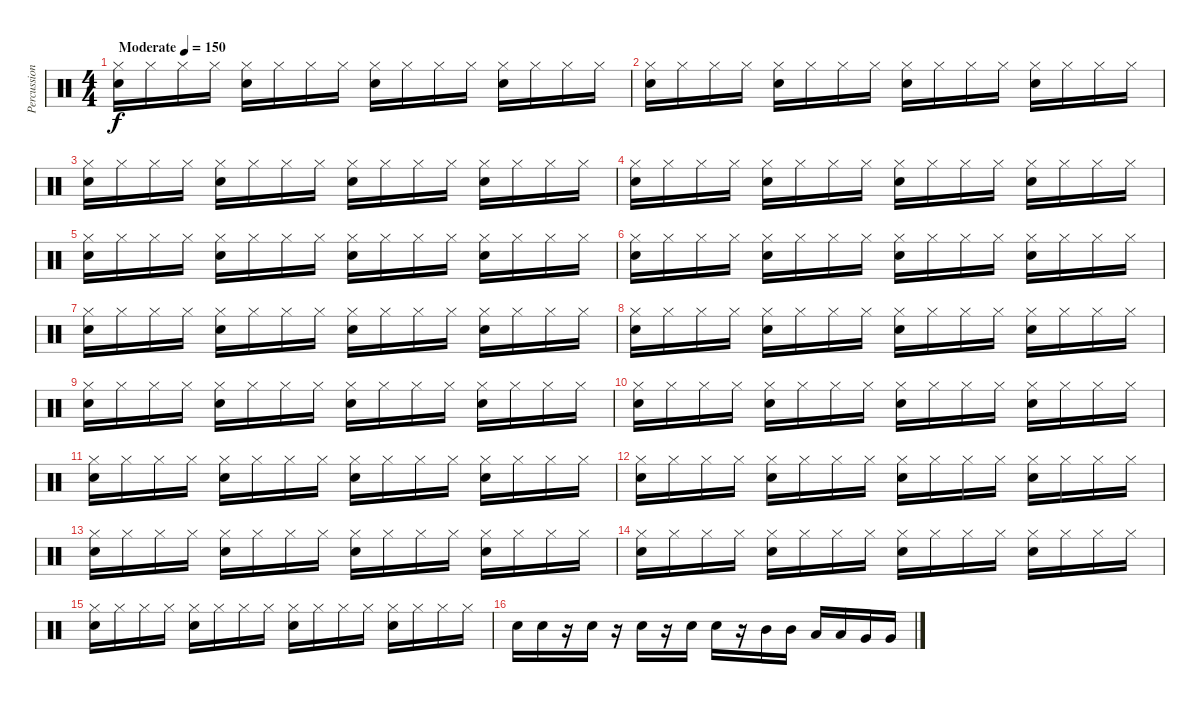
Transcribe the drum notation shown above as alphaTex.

\track ("Percussion" "Percussion") {instrument percussion}
\staff {score}
\articulation defaults
\ts (4 4)
\tempo (150 "Moderate")
\clef neutral
\ks c
("Hi-Hat (closed)" "Snare (hit) 2").16{dy f} "Hi-Hat (closed)".16 "Hi-Hat (closed)".16 "Hi-Hat (closed)".16 ("Hi-Hat (closed)" "Snare (hit) 2").16 "Hi-Hat (closed)".16 "Hi-Hat (closed)".16 "Hi-Hat (closed)".16 ("Hi-Hat (closed)" "Snare (hit) 2").16 "Hi-Hat (closed)".16 "Hi-Hat (closed)".16 "Hi-Hat (closed)".16 ("Hi-Hat (closed)" "Snare (hit) 2").16 "Hi-Hat (closed)".16 "Hi-Hat (closed)".16 "Hi-Hat (closed)".16 |
("Hi-Hat (closed)" "Snare (hit) 2").16 "Hi-Hat (closed)".16 "Hi-Hat (closed)".16 "Hi-Hat (closed)".16 ("Hi-Hat (closed)" "Snare (hit) 2").16 "Hi-Hat (closed)".16 "Hi-Hat (closed)".16 "Hi-Hat (closed)".16 ("Hi-Hat (closed)" "Snare (hit) 2").16 "Hi-Hat (closed)".16 "Hi-Hat (closed)".16 "Hi-Hat (closed)".16 ("Hi-Hat (closed)" "Snare (hit) 2").16 "Hi-Hat (closed)".16 "Hi-Hat (closed)".16 "Hi-Hat (closed)".16 |
("Hi-Hat (closed)" "Snare (hit) 2").16 "Hi-Hat (closed)".16 "Hi-Hat (closed)".16 "Hi-Hat (closed)".16 ("Hi-Hat (closed)" "Snare (hit) 2").16 "Hi-Hat (closed)".16 "Hi-Hat (closed)".16 "Hi-Hat (closed)".16 ("Hi-Hat (closed)" "Snare (hit) 2").16 "Hi-Hat (closed)".16 "Hi-Hat (closed)".16 "Hi-Hat (closed)".16 ("Hi-Hat (closed)" "Snare (hit) 2").16 "Hi-Hat (closed)".16 "Hi-Hat (closed)".16 "Hi-Hat (closed)".16 |
("Hi-Hat (closed)" "Snare (hit) 2").16 "Hi-Hat (closed)".16 "Hi-Hat (closed)".16 "Hi-Hat (closed)".16 ("Hi-Hat (closed)" "Snare (hit) 2").16 "Hi-Hat (closed)".16 "Hi-Hat (closed)".16 "Hi-Hat (closed)".16 ("Hi-Hat (closed)" "Snare (hit) 2").16 "Hi-Hat (closed)".16 "Hi-Hat (closed)".16 "Hi-Hat (closed)".16 ("Hi-Hat (closed)" "Snare (hit) 2").16 "Hi-Hat (closed)".16 "Hi-Hat (closed)".16 "Hi-Hat (closed)".16 |
("Hi-Hat (closed)" "Snare (hit) 2").16 "Hi-Hat (closed)".16 "Hi-Hat (closed)".16 "Hi-Hat (closed)".16 ("Hi-Hat (closed)" "Snare (hit) 2").16 "Hi-Hat (closed)".16 "Hi-Hat (closed)".16 "Hi-Hat (closed)".16 ("Hi-Hat (closed)" "Snare (hit) 2").16 "Hi-Hat (closed)".16 "Hi-Hat (closed)".16 "Hi-Hat (closed)".16 ("Hi-Hat (closed)" "Snare (hit) 2").16 "Hi-Hat (closed)".16 "Hi-Hat (closed)".16 "Hi-Hat (closed)".16 |
("Hi-Hat (closed)" "Snare (hit) 2").16 "Hi-Hat (closed)".16 "Hi-Hat (closed)".16 "Hi-Hat (closed)".16 ("Hi-Hat (closed)" "Snare (hit) 2").16 "Hi-Hat (closed)".16 "Hi-Hat (closed)".16 "Hi-Hat (closed)".16 ("Hi-Hat (closed)" "Snare (hit) 2").16 "Hi-Hat (closed)".16 "Hi-Hat (closed)".16 "Hi-Hat (closed)".16 ("Hi-Hat (closed)" "Snare (hit) 2").16 "Hi-Hat (closed)".16 "Hi-Hat (closed)".16 "Hi-Hat (closed)".16 |
("Hi-Hat (closed)" "Snare (hit) 2").16 "Hi-Hat (closed)".16 "Hi-Hat (closed)".16 "Hi-Hat (closed)".16 ("Hi-Hat (closed)" "Snare (hit) 2").16 "Hi-Hat (closed)".16 "Hi-Hat (closed)".16 "Hi-Hat (closed)".16 ("Hi-Hat (closed)" "Snare (hit) 2").16 "Hi-Hat (closed)".16 "Hi-Hat (closed)".16 "Hi-Hat (closed)".16 ("Hi-Hat (closed)" "Snare (hit) 2").16 "Hi-Hat (closed)".16 "Hi-Hat (closed)".16 "Hi-Hat (closed)".16 |
("Hi-Hat (closed)" "Snare (hit) 2").16 "Hi-Hat (closed)".16 "Hi-Hat (closed)".16 "Hi-Hat (closed)".16 ("Hi-Hat (closed)" "Snare (hit) 2").16 "Hi-Hat (closed)".16 "Hi-Hat (closed)".16 "Hi-Hat (closed)".16 ("Hi-Hat (closed)" "Snare (hit) 2").16 "Hi-Hat (closed)".16 "Hi-Hat (closed)".16 "Hi-Hat (closed)".16 ("Hi-Hat (closed)" "Snare (hit) 2").16 "Hi-Hat (closed)".16 "Hi-Hat (closed)".16 "Hi-Hat (closed)".16 |
("Hi-Hat (closed)" "Snare (hit) 2").16 "Hi-Hat (closed)".16 "Hi-Hat (closed)".16 "Hi-Hat (closed)".16 ("Hi-Hat (closed)" "Snare (hit) 2").16 "Hi-Hat (closed)".16 "Hi-Hat (closed)".16 "Hi-Hat (closed)".16 ("Hi-Hat (closed)" "Snare (hit) 2").16 "Hi-Hat (closed)".16 "Hi-Hat (closed)".16 "Hi-Hat (closed)".16 ("Hi-Hat (closed)" "Snare (hit) 2").16 "Hi-Hat (closed)".16 "Hi-Hat (closed)".16 "Hi-Hat (closed)".16 |
("Hi-Hat (closed)" "Snare (hit) 2").16 "Hi-Hat (closed)".16 "Hi-Hat (closed)".16 "Hi-Hat (closed)".16 ("Hi-Hat (closed)" "Snare (hit) 2").16 "Hi-Hat (closed)".16 "Hi-Hat (closed)".16 "Hi-Hat (closed)".16 ("Hi-Hat (closed)" "Snare (hit) 2").16 "Hi-Hat (closed)".16 "Hi-Hat (closed)".16 "Hi-Hat (closed)".16 ("Hi-Hat (closed)" "Snare (hit) 2").16 "Hi-Hat (closed)".16 "Hi-Hat (closed)".16 "Hi-Hat (closed)".16 |
("Hi-Hat (closed)" "Snare (hit) 2").16 "Hi-Hat (closed)".16 "Hi-Hat (closed)".16 "Hi-Hat (closed)".16 ("Hi-Hat (closed)" "Snare (hit) 2").16 "Hi-Hat (closed)".16 "Hi-Hat (closed)".16 "Hi-Hat (closed)".16 ("Hi-Hat (closed)" "Snare (hit) 2").16 "Hi-Hat (closed)".16 "Hi-Hat (closed)".16 "Hi-Hat (closed)".16 ("Hi-Hat (closed)" "Snare (hit) 2").16 "Hi-Hat (closed)".16 "Hi-Hat (closed)".16 "Hi-Hat (closed)".16 |
("Hi-Hat (closed)" "Snare (hit) 2").16 "Hi-Hat (closed)".16 "Hi-Hat (closed)".16 "Hi-Hat (closed)".16 ("Hi-Hat (closed)" "Snare (hit) 2").16 "Hi-Hat (closed)".16 "Hi-Hat (closed)".16 "Hi-Hat (closed)".16 ("Hi-Hat (closed)" "Snare (hit) 2").16 "Hi-Hat (closed)".16 "Hi-Hat (closed)".16 "Hi-Hat (closed)".16 ("Hi-Hat (closed)" "Snare (hit) 2").16 "Hi-Hat (closed)".16 "Hi-Hat (closed)".16 "Hi-Hat (closed)".16 |
("Hi-Hat (closed)" "Snare (hit) 2").16 "Hi-Hat (closed)".16 "Hi-Hat (closed)".16 "Hi-Hat (closed)".16 ("Hi-Hat (closed)" "Snare (hit) 2").16 "Hi-Hat (closed)".16 "Hi-Hat (closed)".16 "Hi-Hat (closed)".16 ("Hi-Hat (closed)" "Snare (hit) 2").16 "Hi-Hat (closed)".16 "Hi-Hat (closed)".16 "Hi-Hat (closed)".16 ("Hi-Hat (closed)" "Snare (hit) 2").16 "Hi-Hat (closed)".16 "Hi-Hat (closed)".16 "Hi-Hat (closed)".16 |
("Hi-Hat (closed)" "Snare (hit) 2").16 "Hi-Hat (closed)".16 "Hi-Hat (closed)".16 "Hi-Hat (closed)".16 ("Hi-Hat (closed)" "Snare (hit) 2").16 "Hi-Hat (closed)".16 "Hi-Hat (closed)".16 "Hi-Hat (closed)".16 ("Hi-Hat (closed)" "Snare (hit) 2").16 "Hi-Hat (closed)".16 "Hi-Hat (closed)".16 "Hi-Hat (closed)".16 ("Hi-Hat (closed)" "Snare (hit) 2").16 "Hi-Hat (closed)".16 "Hi-Hat (closed)".16 "Hi-Hat (closed)".16 |
("Hi-Hat (closed)" "Snare (hit) 2").16 "Hi-Hat (closed)".16 "Hi-Hat (closed)".16 "Hi-Hat (closed)".16 ("Hi-Hat (closed)" "Snare (hit) 2").16 "Hi-Hat (closed)".16 "Hi-Hat (closed)".16 "Hi-Hat (closed)".16 ("Hi-Hat (closed)" "Snare (hit) 2").16 "Hi-Hat (closed)".16 "Hi-Hat (closed)".16 "Hi-Hat (closed)".16 ("Hi-Hat (closed)" "Snare (hit) 2").16 "Hi-Hat (closed)".16 "Hi-Hat (closed)".16 "Hi-Hat (closed)".16 |
"Snare (hit) 2".16 "Snare (hit) 2".16 r.16 "Snare (hit) 2".16 r.16 "Snare (hit) 2".16 r.16 "Snare (hit) 2".16 "Snare (hit) 2".16 r.16 "Mid Tom (hit)".16 "Mid Tom (hit)".16 "Low Tom (hit)".16 "Low Tom (hit)".16 "Very Low Tom (hit)".16 "Very Low Tom (hit)".16
